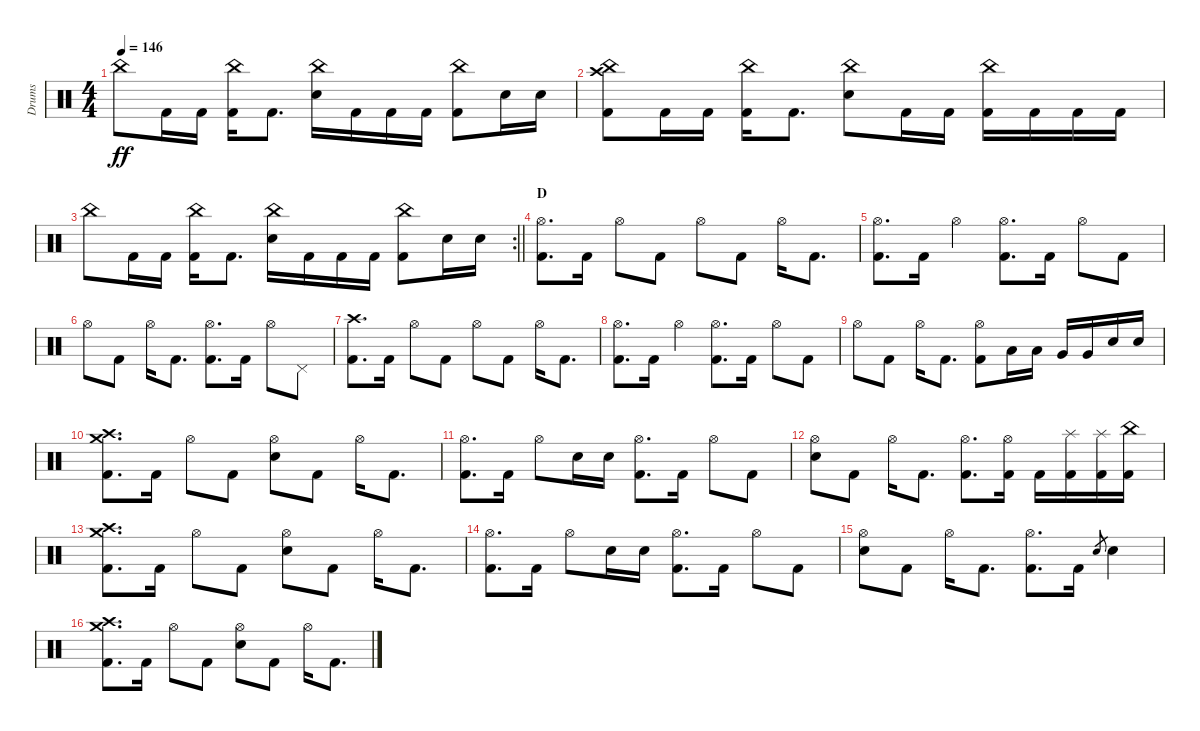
\track ("Drums" "Drums") {instrument percussion}
\staff {score}
\articulation defaults
\ts (4 4)
\tempo 146
\clef neutral
\ks c "China (hit)".8{dy ff} "Kick (hit) 2".16 "Kick (hit) 2".16
("China (hit)" "Kick (hit) 2").16 "Kick (hit) 2".8{d} ("China (hit)" "Electric Snare (hit)").16 "Kick (hit) 2".16 "Kick (hit) 2".16 "Kick (hit) 2".16 ("China (hit)" "Kick (hit) 2").8 "Electric Snare (hit)".16 "Electric Snare (hit)".16 |
("Crash high (hit)" "China (hit)" "Kick (hit) 2").8 "Kick (hit) 2".16 "Kick (hit) 2".16 ("China (hit)" "Kick (hit) 2").16 "Kick (hit) 2".8{d} ("China (hit)" "Electric Snare (hit)").8 "Kick (hit) 2".16 "Kick (hit) 2".16 ("China (hit)" "Kick (hit) 2").16 "Kick (hit) 2".16 "Kick (hit) 2".16 "Kick (hit) 2".16 |
\rc 2
\barLineRight lightlight "China (hit)".8 "Kick (hit) 2".16 "Kick (hit) 2".16
("China (hit)" "Kick (hit) 2").16 "Kick (hit) 2".8{d} ("China (hit)" "Electric Snare (hit)").16 "Kick (hit) 2".16 "Kick (hit) 2".16 "Kick (hit) 2".16 ("China (hit)" "Kick (hit) 2").8 "Electric Snare (hit)".16 "Electric Snare (hit)".16 |
\section ("" "D")
("Hi-Hat (open)" "Kick (hit) 2").8{d} "Kick (hit) 2".16 "Hi-Hat (open)".8 "Kick (hit) 2".8 "Hi-Hat (open)".8 "Kick (hit) 2".8 "Hi-Hat (open)".16 "Kick (hit) 2".8{d} |
("Hi-Hat (open)" "Kick (hit) 2").8{d} "Kick (hit) 2".16 "Hi-Hat (open)".4 ("Hi-Hat (open)" "Kick (hit) 2").8{d} "Kick (hit) 2".16 "Hi-Hat (open)".8 "Kick (hit) 2".8 |
"Hi-Hat (open)".8 "Kick (hit) 2".8 "Hi-Hat (open)".16 "Kick (hit) 2".8{d} ("Hi-Hat (open)" "Kick (hit) 2").8{d} "Kick (hit) 2".16 "Hi-Hat (open)".8 "Pedal Hi-Hat (hit)".8 |
("Crash high (hit)" "Kick (hit) 2").8{d} "Kick (hit) 2".16 "Hi-Hat (open)".8 "Kick (hit) 2".8 "Hi-Hat (open)".8 "Kick (hit) 2".8 "Hi-Hat (open)".16 "Kick (hit) 2".8{d} |
("Hi-Hat (open)" "Kick (hit) 2").8{d} "Kick (hit) 2".16 "Hi-Hat (open)".4 ("Hi-Hat (open)" "Kick (hit) 2").8{d} "Kick (hit) 2".16 "Hi-Hat (open)".8 "Kick (hit) 2".8 |
"Hi-Hat (open)".8 "Kick (hit) 2".8 "Hi-Hat (open)".16 "Kick (hit) 2".8{d} ("Hi-Hat (open)" "Kick (hit) 2").8 "Low Tom (hit)".16 "Low Tom (hit)".16 "Very Low Tom (hit)".16 "Very Low Tom (hit)".16 "Electric Snare (hit)".16 "Electric Snare (hit)".16 |
("Crash medium (hit)" "Crash high (hit)" "Kick (hit) 2").8{d} "Kick (hit) 2".16 "Hi-Hat (open)".8 "Kick (hit) 2".8 ("Hi-Hat (open)" "Electric Snare (hit)").8 "Kick (hit) 2".8 "Hi-Hat (open)".16 "Kick (hit) 2".8{d} |
("Hi-Hat (open)" "Kick (hit) 2").8{d} "Kick (hit) 2".16 "Hi-Hat (open)".8 "Electric Snare (hit)".16 "Electric Snare (hit)".16 ("Hi-Hat (open)" "Kick (hit) 2").8{d} "Kick (hit) 2".16 "Hi-Hat (open)".8 "Kick (hit) 2".8 |
("Hi-Hat (open)" "Electric Snare (hit)").8 "Kick (hit) 2".8 "Hi-Hat (open)".16 "Kick (hit) 2".8{d} ("Hi-Hat (open)" "Kick (hit) 2").8{d} ("Hi-Hat (open)" "Kick (hit) 2").16 "Kick (hit) 2".16 ("Splash (hit)" "Kick (hit) 2").16 ("Splash (hit)" "Kick (hit) 2").16 ("China (hit)" "Kick (hit) 2").16 |
("Crash medium (hit)" "Crash high (hit)" "Kick (hit) 2").8{d} "Kick (hit) 2".16 "Hi-Hat (open)".8 "Kick (hit) 2".8 ("Hi-Hat (open)" "Electric Snare (hit)").8 "Kick (hit) 2".8 "Hi-Hat (open)".16 "Kick (hit) 2".8{d} |
("Hi-Hat (open)" "Kick (hit) 2").8{d} "Kick (hit) 2".16 "Hi-Hat (open)".8 "Electric Snare (hit)".16 "Electric Snare (hit)".16 ("Hi-Hat (open)" "Kick (hit) 2").8{d} "Kick (hit) 2".16 "Hi-Hat (open)".8 "Kick (hit) 2".8 |
("Hi-Hat (open)" "Electric Snare (hit)").8 "Kick (hit) 2".8 "Hi-Hat (open)".16 "Kick (hit) 2".8{d} ("Hi-Hat (open)" "Kick (hit) 2").8{d} "Kick (hit) 2".16 "Electric Snare (hit)".8{gr} "Electric Snare (hit)".4 |
("Crash medium (hit)" "Crash high (hit)" "Kick (hit) 2").8{d} "Kick (hit) 2".16 "Hi-Hat (open)".8 "Kick (hit) 2".8 ("Hi-Hat (open)" "Electric Snare (hit)").8 "Kick (hit) 2".8 "Hi-Hat (open)".16 "Kick (hit) 2".8{d}
